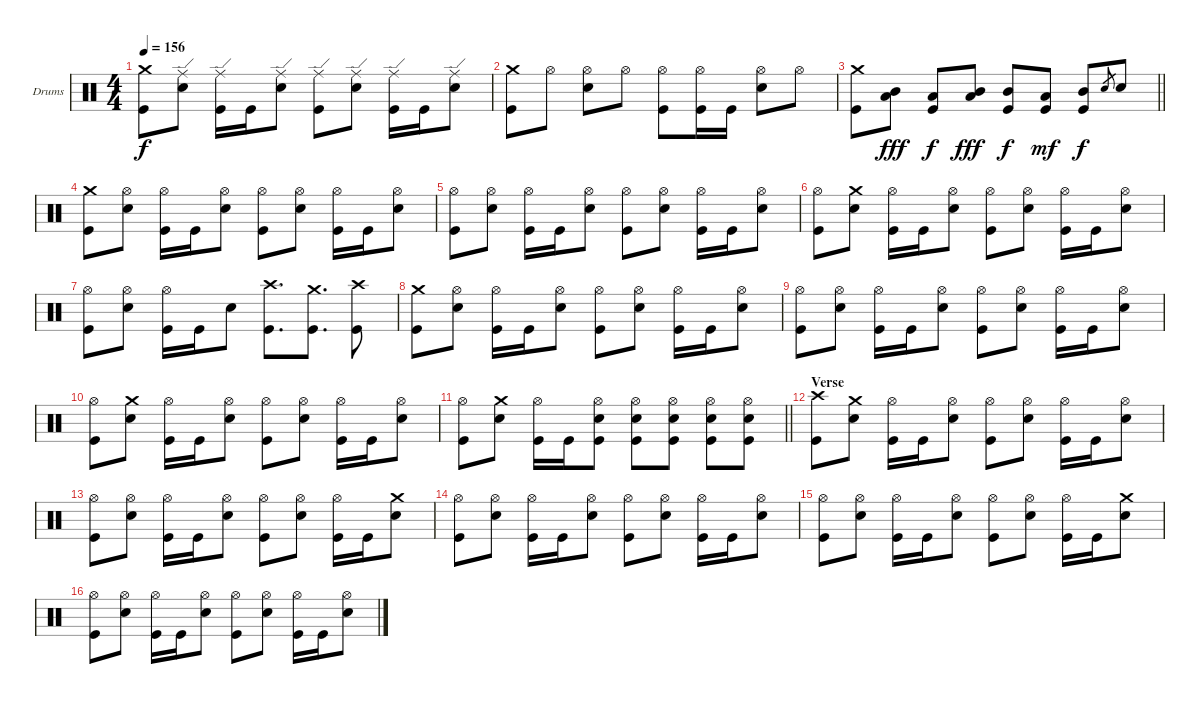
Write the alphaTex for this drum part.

\bracketExtendMode groupsimilarinstruments
\firstSystemTrackNameOrientation horizontal
\otherSystemsTrackNameOrientation horizontal
\track ("Drums" "Drums") {instrument percussion}
\staff {score}
\articulation defaults
\ts (4 4)
\tempo 156
\clef neutral
\ks c
("Crash medium (hit)" "Kick (hit)").8{dy f} ("Ride (edge)" "Snare (hit) 2").8 ("Ride (edge)" "Kick (hit)").16 "Kick (hit)".16 ("Ride (edge)" "Snare (hit) 2").8 ("Ride (edge)" "Kick (hit)").8 ("Ride (edge)" "Snare (hit) 2").8 ("Ride (edge)" "Kick (hit)").16 "Kick (hit)".16 ("Ride (edge)" "Snare (hit) 2").8 |
("Crash medium (hit)" "Kick (hit)").8 "Hi-Hat (open)".8 ("Hi-Hat (open)" "Snare (hit) 2").8 "Hi-Hat (open)".8 ("Hi-Hat (open)" "Kick (hit)").8 ("Hi-Hat (open)" "Kick (hit)").16 "Kick (hit)".16 ("Hi-Hat (open)" "Snare (hit) 2").8 "Hi-Hat (open)".8 |
\barLineRight lightlight
("Crash medium (hit)" "Kick (hit)").8 ("Mid Tom (hit)" "Low Tom (hit)").8{dy fff} ("Low Tom (hit)" "Kick (hit)").8{dy f} ("Mid Tom (hit)" "Low Tom (hit)").8{dy fff} ("Kick (hit)" "Mid Tom (hit)").8{dy f} ("Kick (hit)" "Low Tom (hit)").8{dy mf} ("Mid Tom (hit)" "Kick (hit)").8{dy f} "Snare (hit) 2".8{gr} "Snare (hit) 2".8 |
("Crash medium (hit)" "Kick (hit)").8 ("Hi-Hat (open)" "Snare (hit) 2").8 ("Hi-Hat (open)" "Kick (hit)").16 "Kick (hit)".16 ("Hi-Hat (open)" "Snare (hit) 2").8 ("Hi-Hat (open)" "Kick (hit)").8 ("Hi-Hat (open)" "Snare (hit) 2").8 ("Hi-Hat (open)" "Kick (hit)").16 "Kick (hit)".16 ("Hi-Hat (open)" "Snare (hit) 2").8 |
("Hi-Hat (open)" "Kick (hit)").8 ("Hi-Hat (open)" "Snare (hit) 2").8 ("Hi-Hat (open)" "Kick (hit)").16 "Kick (hit)".16 ("Hi-Hat (open)" "Snare (hit) 2").8 ("Hi-Hat (open)" "Kick (hit)").8 ("Hi-Hat (open)" "Snare (hit) 2").8 ("Hi-Hat (open)" "Kick (hit)").16 "Kick (hit)".16 ("Hi-Hat (open)" "Snare (hit) 2").8 |
("Hi-Hat (open)" "Kick (hit)").8 ("Crash medium (hit)" "Snare (hit) 2").8 ("Hi-Hat (open)" "Kick (hit)").16 "Kick (hit)".16 ("Hi-Hat (open)" "Snare (hit) 2").8 ("Hi-Hat (open)" "Kick (hit)").8 ("Hi-Hat (open)" "Snare (hit) 2").8 ("Hi-Hat (open)" "Kick (hit)").16 "Kick (hit)".16 ("Hi-Hat (open)" "Snare (hit) 2").8 |
("Hi-Hat (open)" "Kick (hit)").8 ("Hi-Hat (open)" "Snare (hit) 2").8 ("Hi-Hat (open)" "Kick (hit)").16 "Kick (hit)".16 "Snare (hit) 2".8 ("Crash high (hit)" "Kick (hit)").8{d} ("Crash medium (hit)" "Kick (hit)").8{d} ("Crash high (hit)" "Kick (hit)").8 |
("Crash medium (hit)" "Kick (hit)").8 ("Hi-Hat (open)" "Snare (hit) 2").8 ("Hi-Hat (open)" "Kick (hit)").16 "Kick (hit)".16 ("Hi-Hat (open)" "Snare (hit) 2").8 ("Hi-Hat (open)" "Kick (hit)").8 ("Hi-Hat (open)" "Snare (hit) 2").8 ("Hi-Hat (open)" "Kick (hit)").16 "Kick (hit)".16 ("Hi-Hat (open)" "Snare (hit) 2").8 |
("Hi-Hat (open)" "Kick (hit)").8 ("Hi-Hat (open)" "Snare (hit) 2").8 ("Hi-Hat (open)" "Kick (hit)").16 "Kick (hit)".16 ("Hi-Hat (open)" "Snare (hit) 2").8 ("Hi-Hat (open)" "Kick (hit)").8 ("Hi-Hat (open)" "Snare (hit) 2").8 ("Hi-Hat (open)" "Kick (hit)").16 "Kick (hit)".16 ("Hi-Hat (open)" "Snare (hit) 2").8 |
("Hi-Hat (open)" "Kick (hit)").8 ("Crash medium (hit)" "Snare (hit) 2").8 ("Hi-Hat (open)" "Kick (hit)").16 "Kick (hit)".16 ("Hi-Hat (open)" "Snare (hit) 2").8 ("Hi-Hat (open)" "Kick (hit)").8 ("Hi-Hat (open)" "Snare (hit) 2").8 ("Hi-Hat (open)" "Kick (hit)").16 "Kick (hit)".16 ("Hi-Hat (open)" "Snare (hit) 2").8 |
\barLineRight lightlight
("Hi-Hat (open)" "Kick (hit)").8 ("Crash medium (hit)" "Snare (hit) 2").8 ("Hi-Hat (open)" "Kick (hit)").16 "Kick (hit)".16 ("Hi-Hat (open)" "Snare (hit) 2" "Kick (hit)").8 ("Hi-Hat (open)" "Kick (hit)" "Snare (hit) 2").8 ("Kick (hit)" "Snare (hit) 2" "Hi-Hat (open)").8 ("Hi-Hat (open)" "Snare (hit) 2" "Kick (hit)").8 ("Hi-Hat (open)" "Snare (hit) 2" "Kick (hit)").8 |
\section ("" "Verse")
("Crash high (hit)" "Kick (hit)").8 ("Crash medium (hit)" "Snare (hit) 2").8 ("Hi-Hat (open)" "Kick (hit)").16 "Kick (hit)".16 ("Hi-Hat (open)" "Snare (hit) 2").8 ("Hi-Hat (open)" "Kick (hit)").8 ("Hi-Hat (open)" "Snare (hit) 2").8 ("Hi-Hat (open)" "Kick (hit)").16 "Kick (hit)".16 ("Hi-Hat (open)" "Snare (hit) 2").8 |
("Hi-Hat (open)" "Kick (hit)").8 ("Hi-Hat (open)" "Snare (hit) 2").8 ("Hi-Hat (open)" "Kick (hit)").16 "Kick (hit)".16 ("Hi-Hat (open)" "Snare (hit) 2").8 ("Hi-Hat (open)" "Kick (hit)").8 ("Hi-Hat (open)" "Snare (hit) 2").8 ("Hi-Hat (open)" "Kick (hit)").16 "Kick (hit)".16 ("Crash medium (hit)" "Snare (hit) 2").8 |
("Hi-Hat (open)" "Kick (hit)").8 ("Hi-Hat (open)" "Snare (hit) 2").8 ("Hi-Hat (open)" "Kick (hit)").16 "Kick (hit)".16 ("Hi-Hat (open)" "Snare (hit) 2").8 ("Hi-Hat (open)" "Kick (hit)").8 ("Hi-Hat (open)" "Snare (hit) 2").8 ("Hi-Hat (open)" "Kick (hit)").16 "Kick (hit)".16 ("Hi-Hat (open)" "Snare (hit) 2").8 |
("Hi-Hat (open)" "Kick (hit)").8 ("Hi-Hat (open)" "Snare (hit) 2").8 ("Hi-Hat (open)" "Kick (hit)").16 "Kick (hit)".16 ("Hi-Hat (open)" "Snare (hit) 2").8 ("Hi-Hat (open)" "Kick (hit)").8 ("Hi-Hat (open)" "Snare (hit) 2").8 ("Hi-Hat (open)" "Kick (hit)").16 "Kick (hit)".16 ("Crash medium (hit)" "Snare (hit) 2").8 |
("Hi-Hat (open)" "Kick (hit)").8 ("Hi-Hat (open)" "Snare (hit) 2").8 ("Hi-Hat (open)" "Kick (hit)").16 "Kick (hit)".16 ("Hi-Hat (open)" "Snare (hit) 2").8 ("Hi-Hat (open)" "Kick (hit)").8 ("Hi-Hat (open)" "Snare (hit) 2").8 ("Hi-Hat (open)" "Kick (hit)").16 "Kick (hit)".16 ("Hi-Hat (open)" "Snare (hit) 2").8
